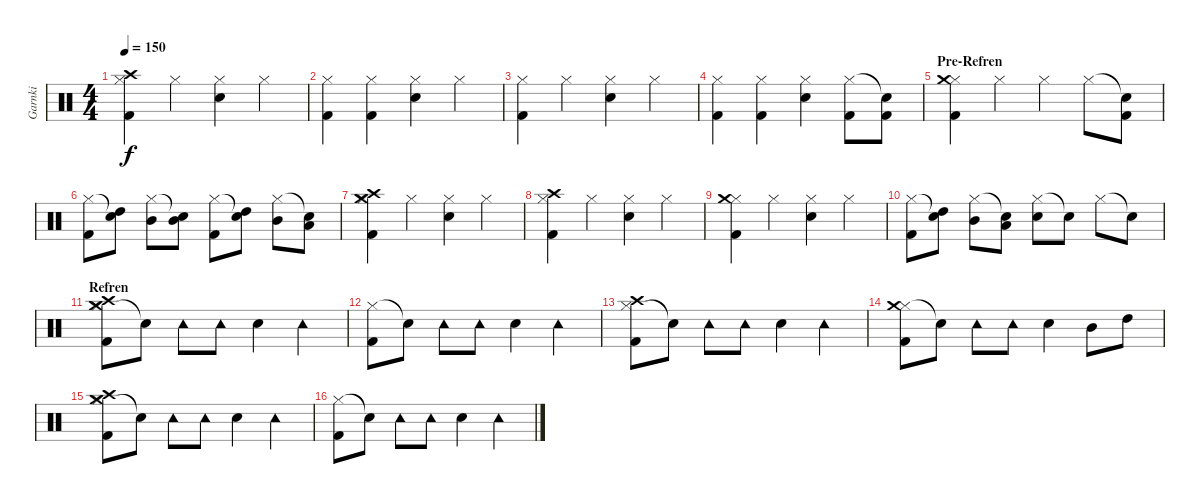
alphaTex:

\track ("Garnki" "Garnki") {instrument percussion}
\staff {score}
\articulation defaults
\ts (4 4)
\tempo 150
\clef neutral
\ks c
("Hi-Hat (closed)" "Crash high (hit)" "Kick (hit) 2").4{dy f} "Hi-Hat (closed)".4 ("Hi-Hat (closed)" "Snare (hit) 2").4 "Hi-Hat (closed)".4 |
("Hi-Hat (closed)" "Kick (hit) 2").4 ("Hi-Hat (closed)" "Kick (hit) 2").4 ("Hi-Hat (closed)" "Snare (hit) 2").4 "Hi-Hat (closed)".4 |
("Hi-Hat (closed)" "Kick (hit) 2").4 "Hi-Hat (closed)".4 ("Hi-Hat (closed)" "Snare (hit) 2").4 "Hi-Hat (closed)".4 |
("Hi-Hat (closed)" "Kick (hit) 2").4 ("Hi-Hat (closed)" "Kick (hit) 2").4 ("Hi-Hat (closed)" "Snare (hit) 2").4 ("Hi-Hat (closed)" "Kick (hit) 2").8 ("Snare (hit)"{t} "Kick (hit) 2").8 |
\section ("" "Pre-Refren")
("Hi-Hat (closed)" "Crash medium (hit)" "Kick (hit) 2").4 "Hi-Hat (closed)".4 "Hi-Hat (closed)".4 "Hi-Hat (closed)".8 ("Snare (hit)"{t} "Kick (hit) 2").8 |
("Hi-Hat (closed)" "Kick (hit) 2").8 ("Snare (hit)"{t} "High Tom (hit)").8 ("Hi-Hat (closed)" "Mid Tom (hit)").8 ("Snare (hit)"{t} "Mid Tom (hit)").8 ("Hi-Hat (closed)" "Kick (hit) 2").8 ("Snare (hit)"{t} "High Tom (hit)").8 ("Hi-Hat (closed)" "Mid Tom (hit)").8 ("Snare (hit)"{t} "Low Tom (hit)").8 |
("Hi-Hat (closed)" "Crash high (hit)" "Kick (hit) 2" "Crash medium (hit)").4 "Hi-Hat (closed)".4 ("Hi-Hat (closed)" "Snare (hit) 2").4 "Hi-Hat (closed)".4 |
("Hi-Hat (closed)" "Crash high (hit)" "Kick (hit) 2").4 "Hi-Hat (closed)".4 ("Hi-Hat (closed)" "Snare (hit) 2").4 "Hi-Hat (closed)".4 |
("Hi-Hat (closed)" "Crash medium (hit)" "Kick (hit) 2").4 "Hi-Hat (closed)".4 ("Hi-Hat (closed)" "Snare (hit) 2").4 "Hi-Hat (closed)".4 |
("Hi-Hat (closed)" "Kick (hit) 2").8 ("Snare (hit)"{t} "High Tom (hit)").8 ("Hi-Hat (closed)" "Mid Tom (hit)").8 ("Snare (hit)"{t} "Low Tom (hit)").8 ("Hi-Hat (closed)" "Snare (hit) 2").8 "Snare (hit)"{t}.8 "Hi-Hat (closed)".8 "Snare (hit)"{t}.8 |
\section ("" "Refren")
("Hi-Hat (closed)" "Crash medium (hit)" "Kick (hit) 2" "Crash high (hit)").8 "Snare (hit)"{t}.8 "Tambourine (hit)".8 "Tambourine (hit)".8 "Snare (hit) 2".4 "Tambourine (hit)".4 |
("Hi-Hat (closed)" "Kick (hit) 2").8 "Snare (hit)"{t}.8 "Tambourine (hit)".8 "Tambourine (hit)".8 "Snare (hit) 2".4 "Tambourine (hit)".4 |
("Hi-Hat (closed)" "Crash high (hit)" "Kick (hit) 2").8 "Snare (hit)"{t}.8 "Tambourine (hit)".8 "Tambourine (hit)".8 "Snare (hit) 2".4 "Tambourine (hit)".4 |
("Hi-Hat (closed)" "Crash medium (hit)" "Kick (hit) 2").8 "Snare (hit)"{t}.8 "Tambourine (hit)".8 "Tambourine (hit)".8 "Snare (hit) 2".4 "Mid Tom (hit)".8 "High Tom (hit)".8 |
("Hi-Hat (closed)" "Crash medium (hit)" "Kick (hit) 2" "Crash high (hit)").8 "Snare (hit)"{t}.8 "Tambourine (hit)".8 "Tambourine (hit)".8 "Snare (hit) 2".4 "Tambourine (hit)".4 |
("Hi-Hat (closed)" "Kick (hit) 2").8 "Snare (hit)"{t}.8 "Tambourine (hit)".8 "Tambourine (hit)".8 "Snare (hit) 2".4 "Tambourine (hit)".4
